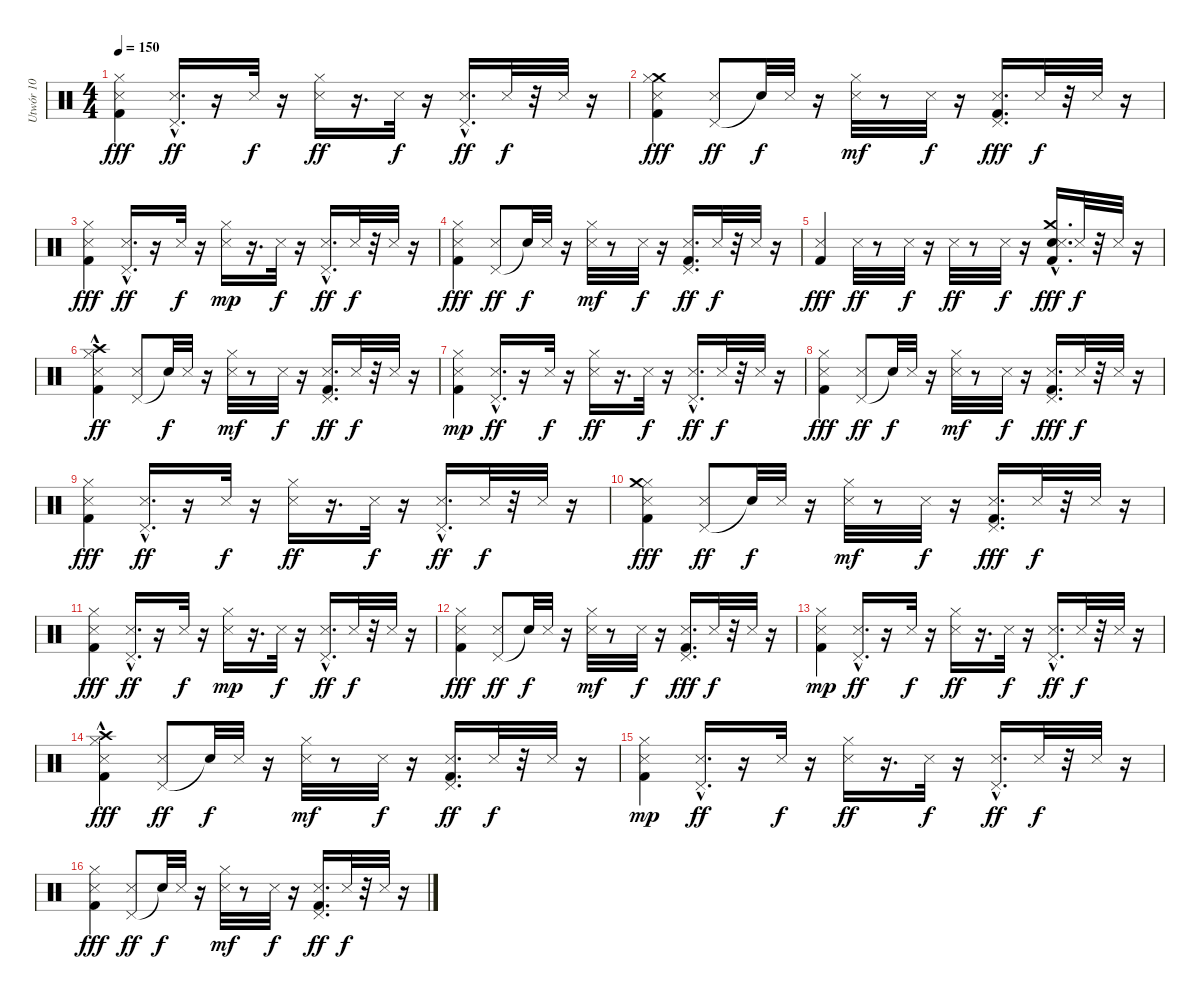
\track ("Utwór 10" "Utwór 10") {instrument percussion}
\staff {score}
\articulation defaults
\ts (4 4)
\tempo 150
\clef neutral
\ks c
("Hi-Hat (closed)" "Kick (hit) 2" "Snare (side stick) 3").4{dy fff} ("Pedal Hi-Hat (hit)"{hac} "Snare (side stick) 3").16{d dy ff} r.16 "Snare (side stick) 3".32{dy f} r.16 ("Hi-Hat (closed)" "Snare (side stick) 3").16{dy ff} r.16{d} "Snare (side stick) 3".32{dy f} r.16 ("Pedal Hi-Hat (hit)"{hac} "Snare (side stick) 3").16{d dy ff} "Snare (side stick) 3".32{dy f} r.32 "Snare (side stick) 3".32 r.16 |
("Snare (side stick) 3" "Kick (hit) 2" "Crash medium (hit)" "Hi-Hat (closed)").4{dy fff} ("Pedal Hi-Hat (hit)" "Snare (side stick) 3").8{dy ff} "Snare (hit)"{t}.32{dy f} "Snare (side stick) 3".32 r.16 ("Hi-Hat (closed)" "Snare (side stick) 3").32{dy mf} r.8 "Snare (side stick) 3".32{dy f} r.16 ("Pedal Hi-Hat (hit)" "Kick (hit) 2" "Snare (side stick) 3").16{d dy fff} "Snare (side stick) 3".32{dy f} r.32 "Snare (side stick) 3".32 r.16 |
("Hi-Hat (closed)" "Kick (hit) 2" "Snare (side stick) 3").4{dy fff} ("Pedal Hi-Hat (hit)"{hac} "Snare (side stick) 3").16{d dy ff} r.16 "Snare (side stick) 3".32{dy f} r.16 ("Snare (side stick) 3" "Hi-Hat (closed)").16{dy mp} r.16{d} "Snare (side stick) 3".32{dy f} r.16 ("Snare (side stick) 3" "Pedal Hi-Hat (hit)"{hac}).16{d dy ff} "Snare (side stick) 3".32{dy f} r.32 "Snare (side stick) 3".32 r.16 |
("Snare (side stick) 3" "Kick (hit) 2" "Hi-Hat (closed)").4{dy fff} ("Pedal Hi-Hat (hit)" "Snare (side stick) 3").8{dy ff} "Snare (hit)"{t}.32{dy f} "Snare (side stick) 3".32 r.16 ("Snare (side stick) 3" "Hi-Hat (closed)").32{dy mf} r.8 "Snare (side stick) 3".32{dy f} r.16 ("Kick (hit) 2" "Pedal Hi-Hat (hit)" "Snare (side stick) 3").16{d dy ff} "Snare (side stick) 3".32{dy f} r.32 "Snare (side stick) 3".32 r.16 |
("Snare (side stick) 3" "Kick (hit) 2").4{dy fff} "Snare (side stick) 3".32{dy ff} r.8 "Snare (side stick) 3".32{dy f} r.16 "Snare (side stick) 3".32{dy ff} r.8 "Snare (side stick) 3".32{dy f} r.16 ("Snare (hit) 2" "Crash medium (hit)"{hac} "Kick (hit) 2"{hac} "Snare (side stick) 3").16{d dy fff} "Snare (side stick) 3".32{dy f} r.32 "Snare (side stick) 3".32 r.16 |
("Kick (hit) 2" "Crash high (hit)"{hac} "Hi-Hat (closed)" "Snare (side stick) 3").4{dy ff} ("Pedal Hi-Hat (hit)" "Snare (side stick) 3").8 "Snare (hit)"{t}.32{dy f} "Snare (side stick) 3".32 r.16 ("Hi-Hat (closed)" "Snare (side stick) 3").32{dy mf} r.8 "Snare (side stick) 3".32{dy f} r.16 ("Snare (side stick) 3" "Kick (hit) 2" "Pedal Hi-Hat (hit)").16{d dy ff} "Snare (side stick) 3".32{dy f} r.32 "Snare (side stick) 3".32 r.16 |
("Kick (hit) 2" "Snare (side stick) 3" "Hi-Hat (closed)").4{dy mp} ("Snare (side stick) 3" "Pedal Hi-Hat (hit)"{hac}).16{d dy ff} r.16 "Snare (side stick) 3".32{dy f} r.16 ("Hi-Hat (closed)" "Snare (side stick) 3").16{dy ff} r.16{d} "Snare (side stick) 3".32{dy f} r.16 ("Snare (side stick) 3" "Pedal Hi-Hat (hit)"{hac}).16{d dy ff} "Snare (side stick) 3".32{dy f} r.32 "Snare (side stick) 3".32 r.16 |
("Hi-Hat (closed)" "Snare (side stick) 3" "Kick (hit) 2").4{dy fff} ("Pedal Hi-Hat (hit)" "Snare (side stick) 3").8{dy ff} "Snare (hit)"{t}.32{dy f} "Snare (side stick) 3".32 r.16 ("Hi-Hat (closed)" "Snare (side stick) 3").32{dy mf} r.8 "Snare (side stick) 3".32{dy f} r.16 ("Pedal Hi-Hat (hit)" "Kick (hit) 2" "Snare (side stick) 3").16{d dy fff} "Snare (side stick) 3".32{dy f} r.32 "Snare (side stick) 3".32 r.16 |
("Snare (side stick) 3" "Hi-Hat (closed)" "Kick (hit) 2").4{dy fff} ("Pedal Hi-Hat (hit)"{hac} "Snare (side stick) 3").16{d dy ff} r.16 "Snare (side stick) 3".32{dy f} r.16 ("Hi-Hat (closed)" "Snare (side stick) 3").16{dy ff} r.16{d} "Snare (side stick) 3".32{dy f} r.16 ("Snare (side stick) 3" "Pedal Hi-Hat (hit)"{hac}).16{d dy ff} "Snare (side stick) 3".32{dy f} r.32 "Snare (side stick) 3".32 r.16 |
("Kick (hit) 2" "Snare (side stick) 3" "Hi-Hat (closed)" "Crash medium (hit)").4{dy fff} ("Pedal Hi-Hat (hit)" "Snare (side stick) 3").8{dy ff} "Snare (hit)"{t}.32{dy f} "Snare (side stick) 3".32 r.16 ("Snare (side stick) 3" "Hi-Hat (closed)").32{dy mf} r.8 "Snare (side stick) 3".32{dy f} r.16 ("Pedal Hi-Hat (hit)" "Kick (hit) 2" "Snare (side stick) 3").16{d dy fff} "Snare (side stick) 3".32{dy f} r.32 "Snare (side stick) 3".32 r.16 |
("Hi-Hat (closed)" "Snare (side stick) 3" "Kick (hit) 2").4{dy fff} ("Snare (side stick) 3" "Pedal Hi-Hat (hit)"{hac}).16{d dy ff} r.16 "Snare (side stick) 3".32{dy f} r.16 ("Snare (side stick) 3" "Hi-Hat (closed)").16{dy mp} r.16{d} "Snare (side stick) 3".32{dy f} r.16 ("Snare (side stick) 3" "Pedal Hi-Hat (hit)"{hac}).16{d dy ff} "Snare (side stick) 3".32{dy f} r.32 "Snare (side stick) 3".32 r.16 |
("Hi-Hat (closed)" "Snare (side stick) 3" "Kick (hit) 2").4{dy fff} ("Pedal Hi-Hat (hit)" "Snare (side stick) 3").8{dy ff} "Snare (hit)"{t}.32{dy f} "Snare (side stick) 3".32 r.16 ("Snare (side stick) 3" "Hi-Hat (closed)").32{dy mf} r.8 "Snare (side stick) 3".32{dy f} r.16 ("Pedal Hi-Hat (hit)" "Kick (hit) 2" "Snare (side stick) 3").16{d dy fff} "Snare (side stick) 3".32{dy f} r.32 "Snare (side stick) 3".32 r.16 |
("Snare (side stick) 3" "Kick (hit) 2" "Hi-Hat (closed)").4{dy mp} ("Pedal Hi-Hat (hit)"{hac} "Snare (side stick) 3").16{d dy ff} r.16 "Snare (side stick) 3".32{dy f} r.16 ("Hi-Hat (closed)" "Snare (side stick) 3").16{dy ff} r.16{d} "Snare (side stick) 3".32{dy f} r.16 ("Pedal Hi-Hat (hit)"{hac} "Snare (side stick) 3").16{d dy ff} "Snare (side stick) 3".32{dy f} r.32 "Snare (side stick) 3".32 r.16 |
("Crash high (hit)"{hac} "Kick (hit) 2" "Hi-Hat (closed)" "Snare (side stick) 3").4{dy fff} ("Pedal Hi-Hat (hit)" "Snare (side stick) 3").8{dy ff} "Snare (hit)"{t}.32{dy f} "Snare (side stick) 3".32 r.16 ("Snare (side stick) 3" "Hi-Hat (closed)").32{dy mf} r.8 "Snare (side stick) 3".32{dy f} r.16 ("Kick (hit) 2" "Pedal Hi-Hat (hit)" "Snare (side stick) 3").16{d dy ff} "Snare (side stick) 3".32{dy f} r.32 "Snare (side stick) 3".32 r.16 |
("Kick (hit) 2" "Hi-Hat (closed)" "Snare (side stick) 3").4{dy mp} ("Pedal Hi-Hat (hit)"{hac} "Snare (side stick) 3").16{d dy ff} r.16 "Snare (side stick) 3".32{dy f} r.16 ("Hi-Hat (closed)" "Snare (side stick) 3").16{dy ff} r.16{d} "Snare (side stick) 3".32{dy f} r.16 ("Snare (side stick) 3" "Pedal Hi-Hat (hit)"{hac}).16{d dy ff} "Snare (side stick) 3".32{dy f} r.32 "Snare (side stick) 3".32 r.16 |
("Kick (hit) 2" "Hi-Hat (closed)" "Snare (side stick) 3").4{dy fff} ("Pedal Hi-Hat (hit)" "Snare (side stick) 3").8{dy ff} "Snare (hit)"{t}.32{dy f} "Snare (side stick) 3".32 r.16 ("Snare (side stick) 3" "Hi-Hat (closed)").32{dy mf} r.8 "Snare (side stick) 3".32{dy f} r.16 ("Kick (hit) 2" "Snare (side stick) 3" "Pedal Hi-Hat (hit)").16{d dy ff} "Snare (side stick) 3".32{dy f} r.32 "Snare (side stick) 3".32 r.16
